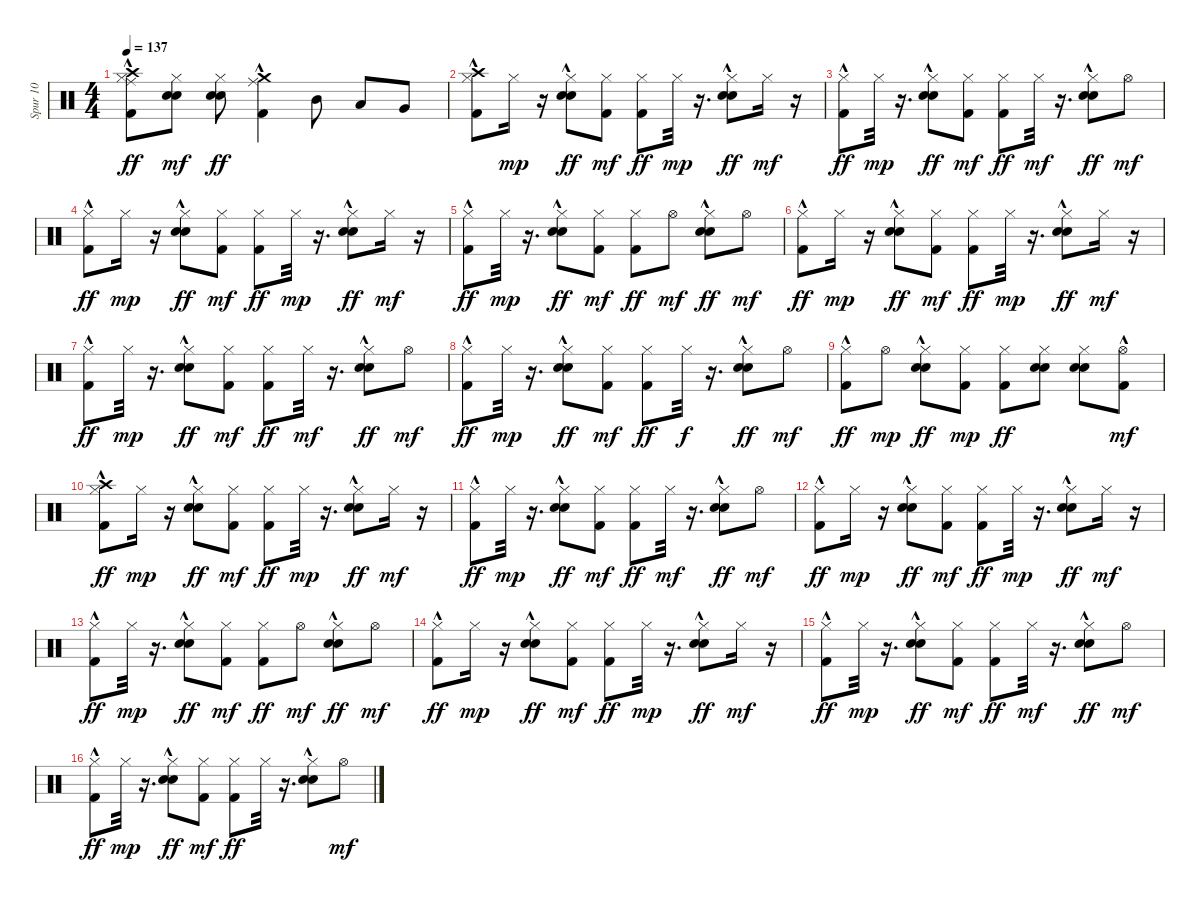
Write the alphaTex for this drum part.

\track ("Spur 10" "Spur 10") {instrument percussion}
\staff {score}
\articulation defaults
\ts (4 4)
\tempo 137
\clef neutral
\ks c
("Kick (hit) 2"{hac} "Ride (middle)" "Crash high (hit)" "Hi-Hat (closed)").8{dy ff} ("Electric Snare (hit)" "Snare (hit) 2" "Hi-Hat (closed)").8{dy mf} ("Electric Snare (hit)" "Snare (hit) 2" "Hi-Hat (closed)").8{dy ff} ("Kick (hit) 2" "Crash medium (hit)" "Ride (middle)"{hac}).4 "Mid Tom (hit)".8 "Low Tom (hit)".8 "Very Low Tom (hit)".8 |
("Kick (hit) 2"{hac} "Hi-Hat (closed)" "Crash high (hit)").8 "Hi-Hat (closed)".16{dy mp} r.16 ("Electric Snare (hit)"{hac} "Snare (hit) 2"{hac} "Hi-Hat (closed)").8{dy ff} ("Kick (hit) 2" "Hi-Hat (closed)").8{dy mf} ("Kick (hit) 2" "Hi-Hat (closed)").8{dy ff} "Hi-Hat (closed)".32{dy mp} r.16{d} ("Electric Snare (hit)"{hac} "Snare (hit) 2"{hac} "Hi-Hat (closed)").8{dy ff} "Hi-Hat (closed)".16{dy mf} r.16 |
("Kick (hit) 2"{hac} "Hi-Hat (closed)").8{dy ff} "Hi-Hat (closed)".32{dy mp} r.16{d} ("Electric Snare (hit)"{hac} "Snare (hit) 2"{hac} "Hi-Hat (closed)").8{dy ff} ("Kick (hit) 2" "Hi-Hat (closed)").8{dy mf} ("Kick (hit) 2" "Hi-Hat (closed)").8{dy ff} "Hi-Hat (closed)".32{dy mf} r.16{d} ("Electric Snare (hit)"{hac} "Snare (hit) 2"{hac} "Hi-Hat (closed)").8{dy ff} "Hi-Hat (open)".8{dy mf} |
("Kick (hit) 2"{hac} "Hi-Hat (closed)").8{dy ff} "Hi-Hat (closed)".16{dy mp} r.16 ("Electric Snare (hit)"{hac} "Snare (hit) 2"{hac} "Hi-Hat (closed)").8{dy ff} ("Kick (hit) 2" "Hi-Hat (closed)").8{dy mf} ("Kick (hit) 2" "Hi-Hat (closed)").8{dy ff} "Hi-Hat (closed)".32{dy mp} r.16{d} ("Electric Snare (hit)"{hac} "Snare (hit) 2"{hac} "Hi-Hat (closed)").8{dy ff} "Hi-Hat (closed)".16{dy mf} r.16 |
("Kick (hit) 2"{hac} "Hi-Hat (closed)").8{dy ff} "Hi-Hat (closed)".32{dy mp} r.16{d} ("Electric Snare (hit)"{hac} "Snare (hit) 2"{hac} "Hi-Hat (closed)").8{dy ff} ("Kick (hit) 2" "Hi-Hat (closed)").8{dy mf} ("Kick (hit) 2" "Hi-Hat (closed)").8{dy ff} "Hi-Hat (open)".8{dy mf} ("Electric Snare (hit)"{hac} "Snare (hit) 2"{hac} "Hi-Hat (closed)").8{dy ff} "Hi-Hat (open)".8{dy mf} |
("Kick (hit) 2"{hac} "Hi-Hat (closed)").8{dy ff} "Hi-Hat (closed)".16{dy mp} r.16 ("Electric Snare (hit)"{hac} "Snare (hit) 2"{hac} "Hi-Hat (closed)").8{dy ff} ("Kick (hit) 2" "Hi-Hat (closed)").8{dy mf} ("Kick (hit) 2" "Hi-Hat (closed)").8{dy ff} "Hi-Hat (closed)".32{dy mp} r.16{d} ("Electric Snare (hit)"{hac} "Snare (hit) 2"{hac} "Hi-Hat (closed)").8{dy ff} "Hi-Hat (closed)".16{dy mf} r.16 |
("Kick (hit) 2"{hac} "Hi-Hat (closed)").8{dy ff} "Hi-Hat (closed)".32{dy mp} r.16{d} ("Electric Snare (hit)"{hac} "Snare (hit) 2"{hac} "Hi-Hat (closed)").8{dy ff} ("Kick (hit) 2" "Hi-Hat (closed)").8{dy mf} ("Kick (hit) 2" "Hi-Hat (closed)").8{dy ff} "Hi-Hat (closed)".32{dy mf} r.16{d} ("Electric Snare (hit)"{hac} "Snare (hit) 2"{hac} "Hi-Hat (closed)").8{dy ff} "Hi-Hat (open)".8{dy mf} |
("Kick (hit) 2"{hac} "Hi-Hat (closed)").8{dy ff} "Hi-Hat (closed)".32{dy mp} r.16{d} ("Electric Snare (hit)"{hac} "Snare (hit) 2"{hac} "Hi-Hat (closed)").8{dy ff} ("Kick (hit) 2" "Hi-Hat (closed)").8{dy mf} ("Kick (hit) 2" "Hi-Hat (closed)").8{dy ff} "Hi-Hat (closed)".32{dy f} r.16{d} ("Electric Snare (hit)"{hac} "Snare (hit) 2"{hac} "Hi-Hat (closed)").8{dy ff} "Hi-Hat (open)".8{dy mf} |
("Kick (hit) 2"{hac} "Hi-Hat (closed)").8{dy ff} "Hi-Hat (open)".8{dy mp} ("Electric Snare (hit)"{hac} "Snare (hit) 2"{hac} "Hi-Hat (closed)").8{dy ff} ("Kick (hit) 2" "Hi-Hat (closed)").8{dy mp} ("Kick (hit) 2" "Hi-Hat (closed)").8{dy ff} ("Electric Snare (hit)" "Snare (hit) 2" "Hi-Hat (closed)").8 ("Electric Snare (hit)" "Snare (hit) 2" "Hi-Hat (closed)").8 ("Kick (hit) 2"{hac} "Hi-Hat (open)").8{dy mf} |
("Kick (hit) 2"{hac} "Hi-Hat (closed)" "Crash high (hit)").8{dy ff} "Hi-Hat (closed)".16{dy mp} r.16 ("Electric Snare (hit)"{hac} "Snare (hit) 2"{hac} "Hi-Hat (closed)").8{dy ff} ("Kick (hit) 2" "Hi-Hat (closed)").8{dy mf} ("Kick (hit) 2" "Hi-Hat (closed)").8{dy ff} "Hi-Hat (closed)".32{dy mp} r.16{d} ("Electric Snare (hit)"{hac} "Snare (hit) 2"{hac} "Hi-Hat (closed)").8{dy ff} "Hi-Hat (closed)".16{dy mf} r.16 |
("Kick (hit) 2"{hac} "Hi-Hat (closed)").8{dy ff} "Hi-Hat (closed)".32{dy mp} r.16{d} ("Electric Snare (hit)"{hac} "Snare (hit) 2"{hac} "Hi-Hat (closed)").8{dy ff} ("Kick (hit) 2" "Hi-Hat (closed)").8{dy mf} ("Kick (hit) 2" "Hi-Hat (closed)").8{dy ff} "Hi-Hat (closed)".32{dy mf} r.16{d} ("Electric Snare (hit)"{hac} "Snare (hit) 2"{hac} "Hi-Hat (closed)").8{dy ff} "Hi-Hat (open)".8{dy mf} |
("Kick (hit) 2"{hac} "Hi-Hat (closed)").8{dy ff} "Hi-Hat (closed)".16{dy mp} r.16 ("Electric Snare (hit)"{hac} "Snare (hit) 2"{hac} "Hi-Hat (closed)").8{dy ff} ("Kick (hit) 2" "Hi-Hat (closed)").8{dy mf} ("Kick (hit) 2" "Hi-Hat (closed)").8{dy ff} "Hi-Hat (closed)".32{dy mp} r.16{d} ("Electric Snare (hit)"{hac} "Snare (hit) 2"{hac} "Hi-Hat (closed)").8{dy ff} "Hi-Hat (closed)".16{dy mf} r.16 |
("Kick (hit) 2"{hac} "Hi-Hat (closed)").8{dy ff} "Hi-Hat (closed)".32{dy mp} r.16{d} ("Electric Snare (hit)"{hac} "Snare (hit) 2"{hac} "Hi-Hat (closed)").8{dy ff} ("Kick (hit) 2" "Hi-Hat (closed)").8{dy mf} ("Kick (hit) 2" "Hi-Hat (closed)").8{dy ff} "Hi-Hat (open)".8{dy mf} ("Electric Snare (hit)"{hac} "Snare (hit) 2"{hac} "Hi-Hat (closed)").8{dy ff} "Hi-Hat (open)".8{dy mf} |
("Kick (hit) 2"{hac} "Hi-Hat (closed)").8{dy ff} "Hi-Hat (closed)".16{dy mp} r.16 ("Electric Snare (hit)"{hac} "Snare (hit) 2"{hac} "Hi-Hat (closed)").8{dy ff} ("Kick (hit) 2" "Hi-Hat (closed)").8{dy mf} ("Kick (hit) 2" "Hi-Hat (closed)").8{dy ff} "Hi-Hat (closed)".32{dy mp} r.16{d} ("Electric Snare (hit)"{hac} "Snare (hit) 2"{hac} "Hi-Hat (closed)").8{dy ff} "Hi-Hat (closed)".16{dy mf} r.16 |
("Kick (hit) 2"{hac} "Hi-Hat (closed)").8{dy ff} "Hi-Hat (closed)".32{dy mp} r.16{d} ("Electric Snare (hit)"{hac} "Snare (hit) 2"{hac} "Hi-Hat (closed)").8{dy ff} ("Kick (hit) 2" "Hi-Hat (closed)").8{dy mf} ("Kick (hit) 2" "Hi-Hat (closed)").8{dy ff} "Hi-Hat (closed)".32{dy mf} r.16{d} ("Electric Snare (hit)"{hac} "Snare (hit) 2"{hac} "Hi-Hat (closed)").8{dy ff} "Hi-Hat (open)".8{dy mf} |
("Kick (hit) 2"{hac} "Hi-Hat (closed)").8{dy ff} "Hi-Hat (closed)".32{dy mp} r.16{d} ("Electric Snare (hit)"{hac} "Snare (hit) 2"{hac} "Hi-Hat (closed)").8{dy ff} ("Kick (hit) 2" "Hi-Hat (closed)").8{dy mf} ("Kick (hit) 2" "Hi-Hat (closed)").8{dy ff} "Hi-Hat (closed)".32 r.16{d} ("Electric Snare (hit)"{hac} "Snare (hit) 2"{hac} "Hi-Hat (closed)").8 "Hi-Hat (open)".8{dy mf}
